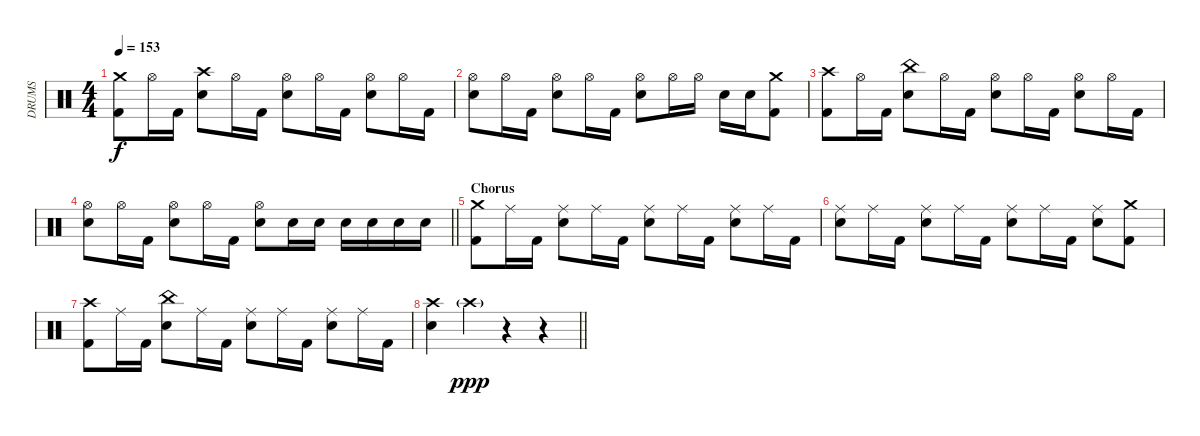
\track ("DRUMS" "DRUMS") {instrument percussion}
\staff {score}
\articulation defaults
\ts (4 4)
\tempo 153
\clef neutral
\ks c
("Crash medium (hit)" "Kick (hit) 2").8{dy f} "Hi-Hat (open)".16 "Kick (hit) 2".16 ("Crash high (hit)" "Snare (hit) 2").8 "Hi-Hat (open)".16 "Kick (hit) 2".16 ("Hi-Hat (open)" "Snare (hit) 2").8 "Hi-Hat (open)".16 "Kick (hit) 2".16 ("Hi-Hat (open)" "Snare (hit) 2").8 "Hi-Hat (open)".16 "Kick (hit) 2".16 |
("Hi-Hat (open)" "Snare (hit) 2").8 "Hi-Hat (open)".16 "Kick (hit) 2".16 ("Hi-Hat (open)" "Snare (hit) 2").8 "Hi-Hat (open)".16 "Kick (hit) 2".16 ("Hi-Hat (open)" "Snare (hit) 2").8 "Hi-Hat (open)".16 "Hi-Hat (open)".16 "Snare (hit) 2".16 "Snare (hit) 2".16 ("Crash medium (hit)" "Kick (hit) 2").8 |
("Crash high (hit)" "Kick (hit) 2").8 "Hi-Hat (open)".16 "Kick (hit) 2".16 ("China (hit)" "Snare (hit) 2").8 "Hi-Hat (open)".16 "Kick (hit) 2".16 ("Hi-Hat (open)" "Snare (hit) 2").8 "Hi-Hat (open)".16 "Kick (hit) 2".16 ("Hi-Hat (open)" "Snare (hit) 2").8 "Hi-Hat (open)".16 "Kick (hit) 2".16 |
\barLineRight lightlight
("Hi-Hat (open)" "Snare (hit) 2").8 "Hi-Hat (open)".16 "Kick (hit) 2".16 ("Hi-Hat (open)" "Snare (hit) 2").8 "Hi-Hat (open)".16 "Kick (hit) 2".16 ("Hi-Hat (open)" "Snare (hit) 2").8 "Snare (hit) 2".16 "Snare (hit) 2".16 "Snare (hit) 2".16 "Snare (hit) 2".16 "Snare (hit) 2".16 "Snare (hit) 2".16 |
\section ("" "Chorus")
("Crash medium (hit)" "Kick (hit) 2").8 "Ride (middle)".16 "Kick (hit) 2".16 ("Ride (middle)" "Snare (hit) 2").8 "Ride (middle)".16 "Kick (hit) 2".16 ("Ride (middle)" "Snare (hit) 2").8 "Ride (middle)".16 "Kick (hit) 2".16 ("Ride (middle)" "Snare (hit) 2").8 "Ride (middle)".16 "Kick (hit) 2".16 |
("Ride (middle)" "Snare (hit) 2").8 "Ride (middle)".16 "Kick (hit) 2".16 ("Ride (middle)" "Snare (hit) 2").8 "Ride (middle)".16 "Kick (hit) 2".16 ("Ride (middle)" "Snare (hit) 2").8 "Ride (middle)".16 "Kick (hit) 2".16 ("Ride (middle)" "Snare (hit) 2").8 ("Crash medium (hit)" "Kick (hit) 2").8 |
("Crash high (hit)" "Kick (hit) 2").8 "Ride (middle)".16 "Kick (hit) 2".16 ("China (hit)" "Snare (hit) 2").8 "Ride (middle)".16 "Kick (hit) 2".16 ("Ride (middle)" "Snare (hit) 2").8 "Ride (middle)".16 "Kick (hit) 2".16 ("Ride (middle)" "Snare (hit) 2").8 "Ride (middle)".16 "Kick (hit) 2".16 |
\barLineRight lightlight
("Crash high (hit)" "Snare (hit) 2").4 "Crash high (hit)"{g}.4{dy ppp} r.4 r.4
